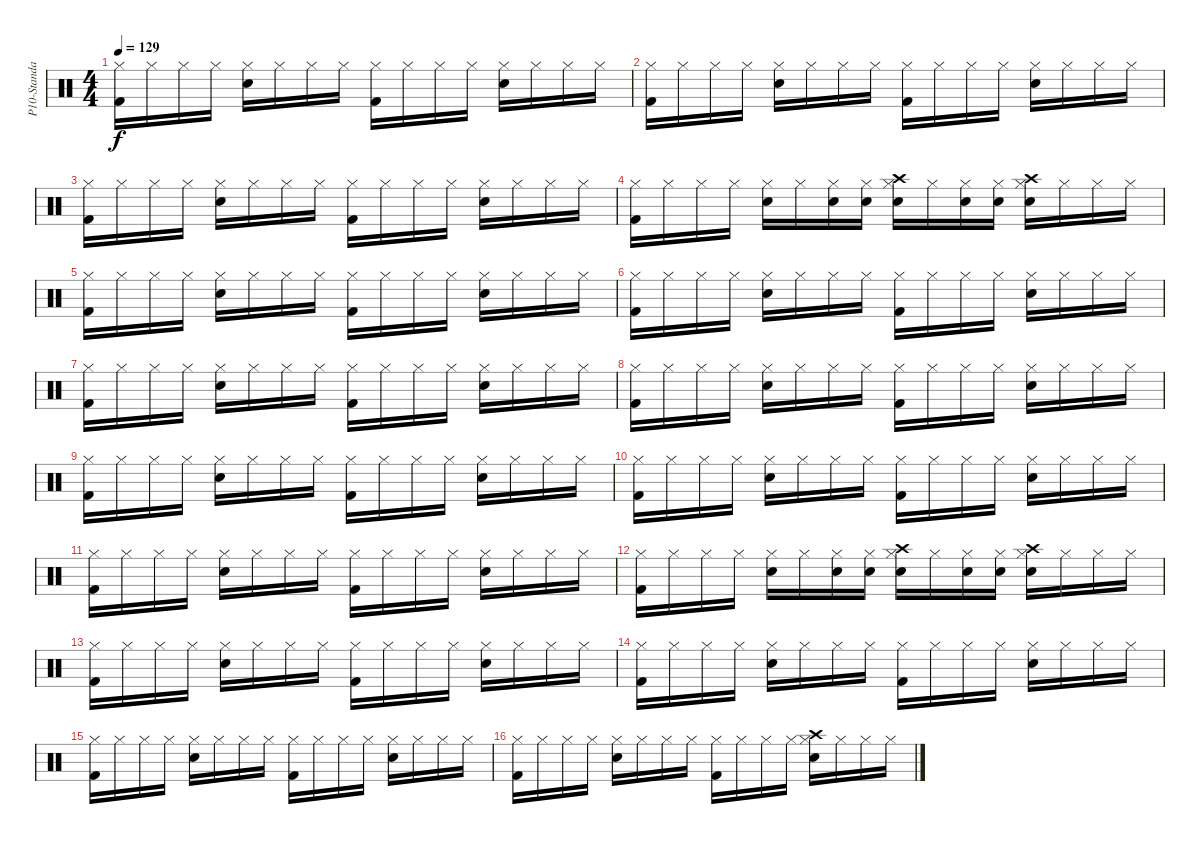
\track ("P10-Standard Kit 2" "P10-Standa") {instrument percussion}
\staff {score}
\articulation defaults
\ts (4 4)
\tempo 129
\clef neutral
\ks c
("Kick (hit) 2" "Hi-Hat (closed)").16{dy f} "Hi-Hat (closed)".16 "Hi-Hat (closed)".16 "Hi-Hat (closed)".16 ("Snare (hit) 2" "Hi-Hat (closed)").16 "Hi-Hat (closed)".16 "Hi-Hat (closed)".16 "Hi-Hat (closed)".16 ("Kick (hit) 2" "Hi-Hat (closed)").16 "Hi-Hat (closed)".16 "Hi-Hat (closed)".16 "Hi-Hat (closed)".16 ("Snare (hit) 2" "Hi-Hat (closed)").16 "Hi-Hat (closed)".16 "Hi-Hat (closed)".16 "Hi-Hat (closed)".16 |
("Kick (hit) 2" "Hi-Hat (closed)").16 "Hi-Hat (closed)".16 "Hi-Hat (closed)".16 "Hi-Hat (closed)".16 ("Snare (hit) 2" "Hi-Hat (closed)").16 "Hi-Hat (closed)".16 "Hi-Hat (closed)".16 "Hi-Hat (closed)".16 ("Kick (hit) 2" "Hi-Hat (closed)").16 "Hi-Hat (closed)".16 "Hi-Hat (closed)".16 "Hi-Hat (closed)".16 ("Snare (hit) 2" "Hi-Hat (closed)").16 "Hi-Hat (closed)".16 "Hi-Hat (closed)".16 "Hi-Hat (closed)".16 |
("Kick (hit) 2" "Hi-Hat (closed)").16 "Hi-Hat (closed)".16 "Hi-Hat (closed)".16 "Hi-Hat (closed)".16 ("Snare (hit) 2" "Hi-Hat (closed)").16 "Hi-Hat (closed)".16 "Hi-Hat (closed)".16 "Hi-Hat (closed)".16 ("Kick (hit) 2" "Hi-Hat (closed)").16 "Hi-Hat (closed)".16 "Hi-Hat (closed)".16 "Hi-Hat (closed)".16 ("Snare (hit) 2" "Hi-Hat (closed)").16 "Hi-Hat (closed)".16 "Hi-Hat (closed)".16 "Hi-Hat (closed)".16 |
("Hi-Hat (closed)" "Kick (hit) 2").16 "Hi-Hat (closed)".16 "Hi-Hat (closed)".16 "Hi-Hat (closed)".16 ("Hi-Hat (closed)" "Snare (hit) 2").16 "Hi-Hat (closed)".16 ("Hi-Hat (closed)" "Snare (hit) 2").16 ("Hi-Hat (closed)" "Snare (hit) 2").16 ("Crash high (hit)" "Hi-Hat (closed)" "Snare (hit) 2").16 "Hi-Hat (closed)".16 ("Hi-Hat (closed)" "Snare (hit) 2").16 ("Snare (hit) 2" "Hi-Hat (closed)").16 ("Crash high (hit)" "Snare (hit) 2" "Hi-Hat (closed)").16 "Hi-Hat (closed)".16 "Hi-Hat (closed)".16 "Hi-Hat (closed)".16 |
("Kick (hit) 2" "Hi-Hat (closed)").16 "Hi-Hat (closed)".16 "Hi-Hat (closed)".16 "Hi-Hat (closed)".16 ("Snare (hit) 2" "Hi-Hat (closed)").16 "Hi-Hat (closed)".16 "Hi-Hat (closed)".16 "Hi-Hat (closed)".16 ("Kick (hit) 2" "Hi-Hat (closed)").16 "Hi-Hat (closed)".16 "Hi-Hat (closed)".16 "Hi-Hat (closed)".16 ("Snare (hit) 2" "Hi-Hat (closed)").16 "Hi-Hat (closed)".16 "Hi-Hat (closed)".16 "Hi-Hat (closed)".16 |
("Kick (hit) 2" "Hi-Hat (closed)").16 "Hi-Hat (closed)".16 "Hi-Hat (closed)".16 "Hi-Hat (closed)".16 ("Snare (hit) 2" "Hi-Hat (closed)").16 "Hi-Hat (closed)".16 "Hi-Hat (closed)".16 "Hi-Hat (closed)".16 ("Kick (hit) 2" "Hi-Hat (closed)").16 "Hi-Hat (closed)".16 "Hi-Hat (closed)".16 "Hi-Hat (closed)".16 ("Snare (hit) 2" "Hi-Hat (closed)").16 "Hi-Hat (closed)".16 "Hi-Hat (closed)".16 "Hi-Hat (closed)".16 |
("Kick (hit) 2" "Hi-Hat (closed)").16 "Hi-Hat (closed)".16 "Hi-Hat (closed)".16 "Hi-Hat (closed)".16 ("Snare (hit) 2" "Hi-Hat (closed)").16 "Hi-Hat (closed)".16 "Hi-Hat (closed)".16 "Hi-Hat (closed)".16 ("Kick (hit) 2" "Hi-Hat (closed)").16 "Hi-Hat (closed)".16 "Hi-Hat (closed)".16 "Hi-Hat (closed)".16 ("Snare (hit) 2" "Hi-Hat (closed)").16 "Hi-Hat (closed)".16 "Hi-Hat (closed)".16 "Hi-Hat (closed)".16 |
("Kick (hit) 2" "Hi-Hat (closed)").16 "Hi-Hat (closed)".16 "Hi-Hat (closed)".16 "Hi-Hat (closed)".16 ("Snare (hit) 2" "Hi-Hat (closed)").16 "Hi-Hat (closed)".16 "Hi-Hat (closed)".16 "Hi-Hat (closed)".16 ("Kick (hit) 2" "Hi-Hat (closed)").16 "Hi-Hat (closed)".16 "Hi-Hat (closed)".16 "Hi-Hat (closed)".16 ("Snare (hit) 2" "Hi-Hat (closed)").16 "Hi-Hat (closed)".16 "Hi-Hat (closed)".16 "Hi-Hat (closed)".16 |
("Kick (hit) 2" "Hi-Hat (closed)").16 "Hi-Hat (closed)".16 "Hi-Hat (closed)".16 "Hi-Hat (closed)".16 ("Snare (hit) 2" "Hi-Hat (closed)").16 "Hi-Hat (closed)".16 "Hi-Hat (closed)".16 "Hi-Hat (closed)".16 ("Kick (hit) 2" "Hi-Hat (closed)").16 "Hi-Hat (closed)".16 "Hi-Hat (closed)".16 "Hi-Hat (closed)".16 ("Snare (hit) 2" "Hi-Hat (closed)").16 "Hi-Hat (closed)".16 "Hi-Hat (closed)".16 "Hi-Hat (closed)".16 |
("Kick (hit) 2" "Hi-Hat (closed)").16 "Hi-Hat (closed)".16 "Hi-Hat (closed)".16 "Hi-Hat (closed)".16 ("Snare (hit) 2" "Hi-Hat (closed)").16 "Hi-Hat (closed)".16 "Hi-Hat (closed)".16 "Hi-Hat (closed)".16 ("Kick (hit) 2" "Hi-Hat (closed)").16 "Hi-Hat (closed)".16 "Hi-Hat (closed)".16 "Hi-Hat (closed)".16 ("Snare (hit) 2" "Hi-Hat (closed)").16 "Hi-Hat (closed)".16 "Hi-Hat (closed)".16 "Hi-Hat (closed)".16 |
("Kick (hit) 2" "Hi-Hat (closed)").16 "Hi-Hat (closed)".16 "Hi-Hat (closed)".16 "Hi-Hat (closed)".16 ("Snare (hit) 2" "Hi-Hat (closed)").16 "Hi-Hat (closed)".16 "Hi-Hat (closed)".16 "Hi-Hat (closed)".16 ("Kick (hit) 2" "Hi-Hat (closed)").16 "Hi-Hat (closed)".16 "Hi-Hat (closed)".16 "Hi-Hat (closed)".16 ("Snare (hit) 2" "Hi-Hat (closed)").16 "Hi-Hat (closed)".16 "Hi-Hat (closed)".16 "Hi-Hat (closed)".16 |
("Hi-Hat (closed)" "Kick (hit) 2").16 "Hi-Hat (closed)".16 "Hi-Hat (closed)".16 "Hi-Hat (closed)".16 ("Hi-Hat (closed)" "Snare (hit) 2").16 "Hi-Hat (closed)".16 ("Hi-Hat (closed)" "Snare (hit) 2").16 ("Hi-Hat (closed)" "Snare (hit) 2").16 ("Crash high (hit)" "Hi-Hat (closed)" "Snare (hit) 2").16 "Hi-Hat (closed)".16 ("Hi-Hat (closed)" "Snare (hit) 2").16 ("Snare (hit) 2" "Hi-Hat (closed)").16 ("Crash high (hit)" "Snare (hit) 2" "Hi-Hat (closed)").16 "Hi-Hat (closed)".16 "Hi-Hat (closed)".16 "Hi-Hat (closed)".16 |
("Kick (hit) 2" "Hi-Hat (closed)").16 "Hi-Hat (closed)".16 "Hi-Hat (closed)".16 "Hi-Hat (closed)".16 ("Snare (hit) 2" "Hi-Hat (closed)").16 "Hi-Hat (closed)".16 "Hi-Hat (closed)".16 "Hi-Hat (closed)".16 ("Kick (hit) 2" "Hi-Hat (closed)").16 "Hi-Hat (closed)".16 "Hi-Hat (closed)".16 "Hi-Hat (closed)".16 ("Snare (hit) 2" "Hi-Hat (closed)").16 "Hi-Hat (closed)".16 "Hi-Hat (closed)".16 "Hi-Hat (closed)".16 |
("Kick (hit) 2" "Hi-Hat (closed)").16 "Hi-Hat (closed)".16 "Hi-Hat (closed)".16 "Hi-Hat (closed)".16 ("Snare (hit) 2" "Hi-Hat (closed)").16 "Hi-Hat (closed)".16 "Hi-Hat (closed)".16 "Hi-Hat (closed)".16 ("Kick (hit) 2" "Hi-Hat (closed)").16 "Hi-Hat (closed)".16 "Hi-Hat (closed)".16 "Hi-Hat (closed)".16 ("Snare (hit) 2" "Hi-Hat (closed)").16 "Hi-Hat (closed)".16 "Hi-Hat (closed)".16 "Hi-Hat (closed)".16 |
("Kick (hit) 2" "Hi-Hat (closed)").16 "Hi-Hat (closed)".16 "Hi-Hat (closed)".16 "Hi-Hat (closed)".16 ("Snare (hit) 2" "Hi-Hat (closed)").16 "Hi-Hat (closed)".16 "Hi-Hat (closed)".16 "Hi-Hat (closed)".16 ("Kick (hit) 2" "Hi-Hat (closed)").16 "Hi-Hat (closed)".16 "Hi-Hat (closed)".16 "Hi-Hat (closed)".16 ("Snare (hit) 2" "Hi-Hat (closed)").16 "Hi-Hat (closed)".16 "Hi-Hat (closed)".16 "Hi-Hat (closed)".16 |
("Kick (hit) 2" "Hi-Hat (closed)").16 "Hi-Hat (closed)".16 "Hi-Hat (closed)".16 "Hi-Hat (closed)".16 ("Snare (hit) 2" "Hi-Hat (closed)").16 "Hi-Hat (closed)".16 "Hi-Hat (closed)".16 "Hi-Hat (closed)".16 ("Kick (hit) 2" "Hi-Hat (closed)").16 "Hi-Hat (closed)".16 "Hi-Hat (closed)".16 "Hi-Hat (closed)".16 ("Crash high (hit)" "Snare (hit) 2" "Hi-Hat (closed)").16 "Hi-Hat (closed)".16 "Hi-Hat (closed)".16 "Hi-Hat (closed)".16
